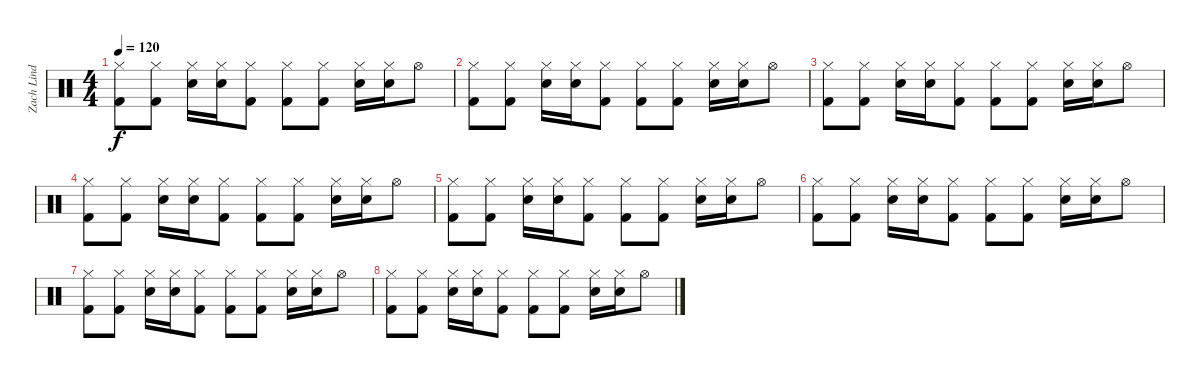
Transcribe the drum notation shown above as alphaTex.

\track ("Zach Lind (Drums)" "Zach Lind ") {instrument percussion}
\staff {score}
\articulation defaults
\ts (4 4)
\tempo 120
\clef neutral
\ks c
("Hi-Hat (closed)" "Kick (hit) 2").8{dy f} ("Hi-Hat (closed)" "Kick (hit) 2").8 ("Hi-Hat (closed)" "Electric Snare (hit)").16 ("Hi-Hat (closed)" "Electric Snare (hit)").16 ("Hi-Hat (closed)" "Kick (hit) 2").8 ("Hi-Hat (closed)" "Kick (hit) 2").8 ("Hi-Hat (closed)" "Kick (hit) 2").8 ("Hi-Hat (closed)" "Electric Snare (hit)").16 ("Hi-Hat (closed)" "Electric Snare (hit)").16 "Hi-Hat (open)".8 |
("Hi-Hat (closed)" "Kick (hit) 2").8 ("Hi-Hat (closed)" "Kick (hit) 2").8 ("Hi-Hat (closed)" "Electric Snare (hit)").16 ("Hi-Hat (closed)" "Electric Snare (hit)").16 ("Hi-Hat (closed)" "Kick (hit) 2").8 ("Hi-Hat (closed)" "Kick (hit) 2").8 ("Hi-Hat (closed)" "Kick (hit) 2").8 ("Hi-Hat (closed)" "Electric Snare (hit)").16 ("Hi-Hat (closed)" "Electric Snare (hit)").16 "Hi-Hat (open)".8 |
("Hi-Hat (closed)" "Kick (hit) 2").8 ("Hi-Hat (closed)" "Kick (hit) 2").8 ("Hi-Hat (closed)" "Electric Snare (hit)").16 ("Hi-Hat (closed)" "Electric Snare (hit)").16 ("Hi-Hat (closed)" "Kick (hit) 2").8 ("Hi-Hat (closed)" "Kick (hit) 2").8 ("Hi-Hat (closed)" "Kick (hit) 2").8 ("Hi-Hat (closed)" "Electric Snare (hit)").16 ("Hi-Hat (closed)" "Electric Snare (hit)").16 "Hi-Hat (open)".8 |
("Hi-Hat (closed)" "Kick (hit) 2").8 ("Hi-Hat (closed)" "Kick (hit) 2").8 ("Hi-Hat (closed)" "Electric Snare (hit)").16 ("Hi-Hat (closed)" "Electric Snare (hit)").16 ("Hi-Hat (closed)" "Kick (hit) 2").8 ("Hi-Hat (closed)" "Kick (hit) 2").8 ("Hi-Hat (closed)" "Kick (hit) 2").8 ("Hi-Hat (closed)" "Electric Snare (hit)").16 ("Hi-Hat (closed)" "Electric Snare (hit)").16 "Hi-Hat (open)".8 |
("Hi-Hat (closed)" "Kick (hit) 2").8 ("Hi-Hat (closed)" "Kick (hit) 2").8 ("Hi-Hat (closed)" "Electric Snare (hit)").16 ("Hi-Hat (closed)" "Electric Snare (hit)").16 ("Hi-Hat (closed)" "Kick (hit) 2").8 ("Hi-Hat (closed)" "Kick (hit) 2").8 ("Hi-Hat (closed)" "Kick (hit) 2").8 ("Hi-Hat (closed)" "Electric Snare (hit)").16 ("Hi-Hat (closed)" "Electric Snare (hit)").16 "Hi-Hat (open)".8 |
("Hi-Hat (closed)" "Kick (hit) 2").8 ("Hi-Hat (closed)" "Kick (hit) 2").8 ("Hi-Hat (closed)" "Electric Snare (hit)").16 ("Hi-Hat (closed)" "Electric Snare (hit)").16 ("Hi-Hat (closed)" "Kick (hit) 2").8 ("Hi-Hat (closed)" "Kick (hit) 2").8 ("Hi-Hat (closed)" "Kick (hit) 2").8 ("Hi-Hat (closed)" "Electric Snare (hit)").16 ("Hi-Hat (closed)" "Electric Snare (hit)").16 "Hi-Hat (open)".8 |
("Hi-Hat (closed)" "Kick (hit) 2").8 ("Hi-Hat (closed)" "Kick (hit) 2").8 ("Hi-Hat (closed)" "Electric Snare (hit)").16 ("Hi-Hat (closed)" "Electric Snare (hit)").16 ("Hi-Hat (closed)" "Kick (hit) 2").8 ("Hi-Hat (closed)" "Kick (hit) 2").8 ("Hi-Hat (closed)" "Kick (hit) 2").8 ("Hi-Hat (closed)" "Electric Snare (hit)").16 ("Hi-Hat (closed)" "Electric Snare (hit)").16 "Hi-Hat (open)".8 |
("Hi-Hat (closed)" "Kick (hit) 2").8 ("Hi-Hat (closed)" "Kick (hit) 2").8 ("Hi-Hat (closed)" "Electric Snare (hit)").16 ("Hi-Hat (closed)" "Electric Snare (hit)").16 ("Hi-Hat (closed)" "Kick (hit) 2").8 ("Hi-Hat (closed)" "Kick (hit) 2").8 ("Hi-Hat (closed)" "Kick (hit) 2").8 ("Hi-Hat (closed)" "Electric Snare (hit)").16 ("Hi-Hat (closed)" "Electric Snare (hit)").16 "Hi-Hat (open)".8
